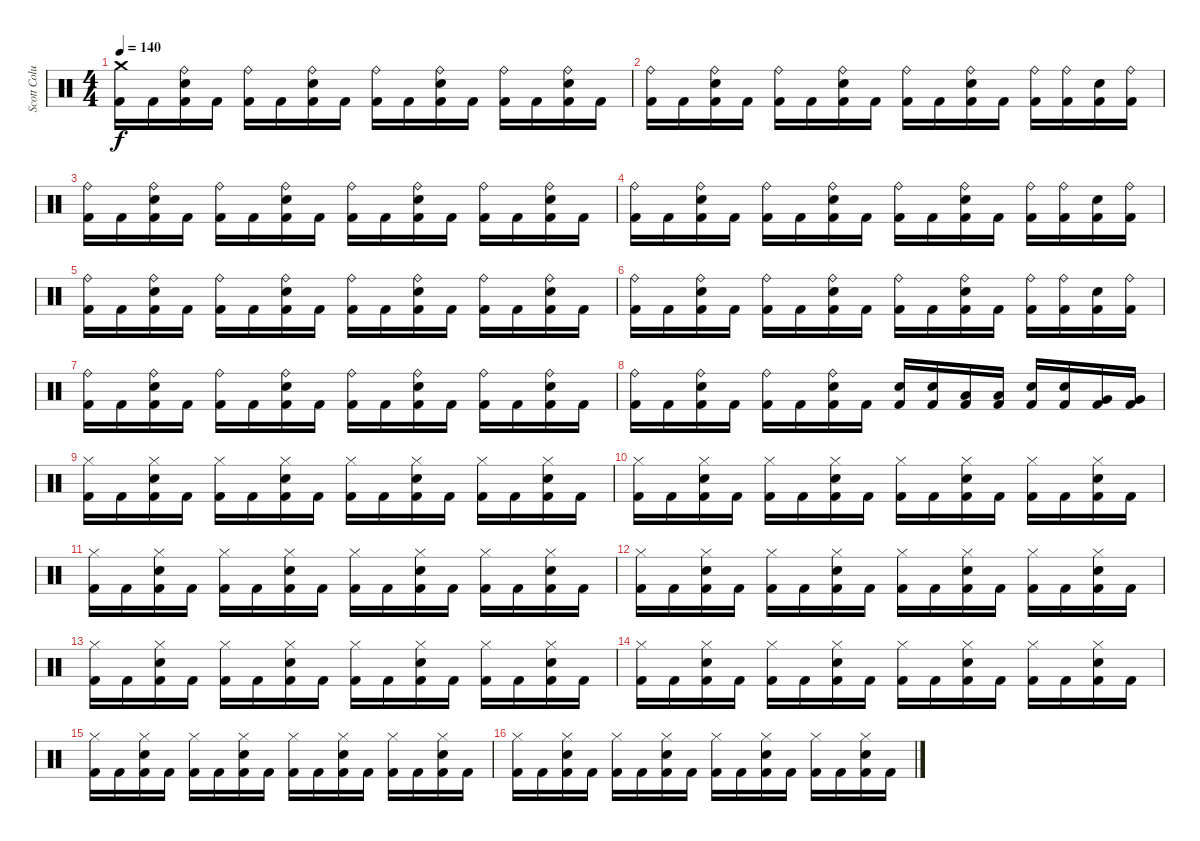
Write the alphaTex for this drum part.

\track ("Scott Columbus(Drums)" "Scott Colu") {instrument percussion}
\staff {score}
\articulation defaults
\ts (4 4)
\tempo 140
\clef neutral
\ks c
("Crash medium (hit)" "Kick (hit) 2").16{dy f} "Kick (hit) 2".16 ("Ride (bell)" "Snare (hit) 2" "Kick (hit) 2").16 "Kick (hit) 2".16 ("Ride (bell)" "Kick (hit) 2").16 "Kick (hit) 2".16 ("Ride (bell)" "Snare (hit) 2" "Kick (hit) 2").16 "Kick (hit) 2".16 ("Ride (bell)" "Kick (hit) 2").16 "Kick (hit) 2".16 ("Ride (bell)" "Snare (hit) 2" "Kick (hit) 2").16 "Kick (hit) 2".16 ("Ride (bell)" "Kick (hit) 2").16 "Kick (hit) 2".16 ("Ride (bell)" "Snare (hit) 2" "Kick (hit) 2").16 "Kick (hit) 2".16 |
("Ride (bell)" "Kick (hit) 2").16 "Kick (hit) 2".16 ("Ride (bell)" "Snare (hit) 2" "Kick (hit) 2").16 "Kick (hit) 2".16 ("Ride (bell)" "Kick (hit) 2").16 "Kick (hit) 2".16 ("Ride (bell)" "Snare (hit) 2" "Kick (hit) 2").16 "Kick (hit) 2".16 ("Ride (bell)" "Kick (hit) 2").16 "Kick (hit) 2".16 ("Ride (bell)" "Snare (hit) 2" "Kick (hit) 2").16 "Kick (hit) 2".16 ("Ride (bell)" "Kick (hit) 2").16 ("Ride (bell)" "Kick (hit) 2").16 ("Snare (hit) 2" "Kick (hit) 2").16 ("Ride (bell)" "Kick (hit) 2").16 |
("Ride (bell)" "Kick (hit) 2").16 "Kick (hit) 2".16 ("Ride (bell)" "Snare (hit) 2" "Kick (hit) 2").16 "Kick (hit) 2".16 ("Ride (bell)" "Kick (hit) 2").16 "Kick (hit) 2".16 ("Ride (bell)" "Snare (hit) 2" "Kick (hit) 2").16 "Kick (hit) 2".16 ("Ride (bell)" "Kick (hit) 2").16 "Kick (hit) 2".16 ("Ride (bell)" "Snare (hit) 2" "Kick (hit) 2").16 "Kick (hit) 2".16 ("Ride (bell)" "Kick (hit) 2").16 "Kick (hit) 2".16 ("Ride (bell)" "Snare (hit) 2" "Kick (hit) 2").16 "Kick (hit) 2".16 |
("Ride (bell)" "Kick (hit) 2").16 "Kick (hit) 2".16 ("Ride (bell)" "Snare (hit) 2" "Kick (hit) 2").16 "Kick (hit) 2".16 ("Ride (bell)" "Kick (hit) 2").16 "Kick (hit) 2".16 ("Ride (bell)" "Snare (hit) 2" "Kick (hit) 2").16 "Kick (hit) 2".16 ("Ride (bell)" "Kick (hit) 2").16 "Kick (hit) 2".16 ("Ride (bell)" "Snare (hit) 2" "Kick (hit) 2").16 "Kick (hit) 2".16 ("Ride (bell)" "Kick (hit) 2").16 ("Ride (bell)" "Kick (hit) 2").16 ("Snare (hit) 2" "Kick (hit) 2").16 ("Ride (bell)" "Kick (hit) 2").16 |
("Ride (bell)" "Kick (hit) 2").16 "Kick (hit) 2".16 ("Ride (bell)" "Snare (hit) 2" "Kick (hit) 2").16 "Kick (hit) 2".16 ("Ride (bell)" "Kick (hit) 2").16 "Kick (hit) 2".16 ("Ride (bell)" "Snare (hit) 2" "Kick (hit) 2").16 "Kick (hit) 2".16 ("Ride (bell)" "Kick (hit) 2").16 "Kick (hit) 2".16 ("Ride (bell)" "Snare (hit) 2" "Kick (hit) 2").16 "Kick (hit) 2".16 ("Ride (bell)" "Kick (hit) 2").16 "Kick (hit) 2".16 ("Ride (bell)" "Snare (hit) 2" "Kick (hit) 2").16 "Kick (hit) 2".16 |
("Ride (bell)" "Kick (hit) 2").16 "Kick (hit) 2".16 ("Ride (bell)" "Snare (hit) 2" "Kick (hit) 2").16 "Kick (hit) 2".16 ("Ride (bell)" "Kick (hit) 2").16 "Kick (hit) 2".16 ("Ride (bell)" "Snare (hit) 2" "Kick (hit) 2").16 "Kick (hit) 2".16 ("Ride (bell)" "Kick (hit) 2").16 "Kick (hit) 2".16 ("Ride (bell)" "Snare (hit) 2" "Kick (hit) 2").16 "Kick (hit) 2".16 ("Ride (bell)" "Kick (hit) 2").16 ("Ride (bell)" "Kick (hit) 2").16 ("Snare (hit) 2" "Kick (hit) 2").16 ("Ride (bell)" "Kick (hit) 2").16 |
("Ride (bell)" "Kick (hit) 2").16 "Kick (hit) 2".16 ("Ride (bell)" "Snare (hit) 2" "Kick (hit) 2").16 "Kick (hit) 2".16 ("Ride (bell)" "Kick (hit) 2").16 "Kick (hit) 2".16 ("Ride (bell)" "Snare (hit) 2" "Kick (hit) 2").16 "Kick (hit) 2".16 ("Ride (bell)" "Kick (hit) 2").16 "Kick (hit) 2".16 ("Ride (bell)" "Snare (hit) 2" "Kick (hit) 2").16 "Kick (hit) 2".16 ("Ride (bell)" "Kick (hit) 2").16 "Kick (hit) 2".16 ("Ride (bell)" "Snare (hit) 2" "Kick (hit) 2").16 "Kick (hit) 2".16 |
("Ride (bell)" "Kick (hit) 2").16 "Kick (hit) 2".16 ("Ride (bell)" "Snare (hit) 2" "Kick (hit) 2").16 "Kick (hit) 2".16 ("Ride (bell)" "Kick (hit) 2").16 "Kick (hit) 2".16 ("Ride (bell)" "Snare (hit) 2" "Kick (hit) 2").16 "Kick (hit) 2".16 ("Snare (hit) 2" "Kick (hit) 2").16 ("Snare (hit) 2" "Kick (hit) 2").16 ("Low Tom (hit)" "Kick (hit) 2").16 ("Low Tom (hit)" "Kick (hit) 2").16 ("Snare (hit) 2" "Kick (hit) 2").16 ("Snare (hit) 2" "Kick (hit) 2").16 ("Very Low Tom (hit)" "Kick (hit) 2").16 ("Very Low Tom (hit)" "Kick (hit) 2").16 |
("Hi-Hat (closed)" "Kick (hit) 2").16 "Kick (hit) 2".16 ("Hi-Hat (closed)" "Snare (hit) 2" "Kick (hit) 2").16 "Kick (hit) 2".16 ("Hi-Hat (closed)" "Kick (hit) 2").16 "Kick (hit) 2".16 ("Hi-Hat (closed)" "Snare (hit) 2" "Kick (hit) 2").16 "Kick (hit) 2".16 ("Hi-Hat (closed)" "Kick (hit) 2").16 "Kick (hit) 2".16 ("Hi-Hat (closed)" "Snare (hit) 2" "Kick (hit) 2").16 "Kick (hit) 2".16 ("Hi-Hat (closed)" "Kick (hit) 2").16 "Kick (hit) 2".16 ("Hi-Hat (closed)" "Snare (hit) 2" "Kick (hit) 2").16 "Kick (hit) 2".16 |
("Hi-Hat (closed)" "Kick (hit) 2").16 "Kick (hit) 2".16 ("Hi-Hat (closed)" "Snare (hit) 2" "Kick (hit) 2").16 "Kick (hit) 2".16 ("Hi-Hat (closed)" "Kick (hit) 2").16 "Kick (hit) 2".16 ("Hi-Hat (closed)" "Snare (hit) 2" "Kick (hit) 2").16 "Kick (hit) 2".16 ("Hi-Hat (closed)" "Kick (hit) 2").16 "Kick (hit) 2".16 ("Hi-Hat (closed)" "Snare (hit) 2" "Kick (hit) 2").16 "Kick (hit) 2".16 ("Hi-Hat (closed)" "Kick (hit) 2").16 "Kick (hit) 2".16 ("Hi-Hat (closed)" "Snare (hit) 2" "Kick (hit) 2").16 "Kick (hit) 2".16 |
("Hi-Hat (closed)" "Kick (hit) 2").16 "Kick (hit) 2".16 ("Hi-Hat (closed)" "Snare (hit) 2" "Kick (hit) 2").16 "Kick (hit) 2".16 ("Hi-Hat (closed)" "Kick (hit) 2").16 "Kick (hit) 2".16 ("Hi-Hat (closed)" "Snare (hit) 2" "Kick (hit) 2").16 "Kick (hit) 2".16 ("Hi-Hat (closed)" "Kick (hit) 2").16 "Kick (hit) 2".16 ("Hi-Hat (closed)" "Snare (hit) 2" "Kick (hit) 2").16 "Kick (hit) 2".16 ("Hi-Hat (closed)" "Kick (hit) 2").16 "Kick (hit) 2".16 ("Hi-Hat (closed)" "Snare (hit) 2" "Kick (hit) 2").16 "Kick (hit) 2".16 |
("Hi-Hat (closed)" "Kick (hit) 2").16 "Kick (hit) 2".16 ("Hi-Hat (closed)" "Snare (hit) 2" "Kick (hit) 2").16 "Kick (hit) 2".16 ("Hi-Hat (closed)" "Kick (hit) 2").16 "Kick (hit) 2".16 ("Hi-Hat (closed)" "Snare (hit) 2" "Kick (hit) 2").16 "Kick (hit) 2".16 ("Hi-Hat (closed)" "Kick (hit) 2").16 "Kick (hit) 2".16 ("Hi-Hat (closed)" "Snare (hit) 2" "Kick (hit) 2").16 "Kick (hit) 2".16 ("Hi-Hat (closed)" "Kick (hit) 2").16 "Kick (hit) 2".16 ("Hi-Hat (closed)" "Snare (hit) 2" "Kick (hit) 2").16 "Kick (hit) 2".16 |
("Hi-Hat (closed)" "Kick (hit) 2").16 "Kick (hit) 2".16 ("Hi-Hat (closed)" "Snare (hit) 2" "Kick (hit) 2").16 "Kick (hit) 2".16 ("Hi-Hat (closed)" "Kick (hit) 2").16 "Kick (hit) 2".16 ("Hi-Hat (closed)" "Snare (hit) 2" "Kick (hit) 2").16 "Kick (hit) 2".16 ("Hi-Hat (closed)" "Kick (hit) 2").16 "Kick (hit) 2".16 ("Hi-Hat (closed)" "Snare (hit) 2" "Kick (hit) 2").16 "Kick (hit) 2".16 ("Hi-Hat (closed)" "Kick (hit) 2").16 "Kick (hit) 2".16 ("Hi-Hat (closed)" "Snare (hit) 2" "Kick (hit) 2").16 "Kick (hit) 2".16 |
("Hi-Hat (closed)" "Kick (hit) 2").16 "Kick (hit) 2".16 ("Hi-Hat (closed)" "Snare (hit) 2" "Kick (hit) 2").16 "Kick (hit) 2".16 ("Hi-Hat (closed)" "Kick (hit) 2").16 "Kick (hit) 2".16 ("Hi-Hat (closed)" "Snare (hit) 2" "Kick (hit) 2").16 "Kick (hit) 2".16 ("Hi-Hat (closed)" "Kick (hit) 2").16 "Kick (hit) 2".16 ("Hi-Hat (closed)" "Snare (hit) 2" "Kick (hit) 2").16 "Kick (hit) 2".16 ("Hi-Hat (closed)" "Kick (hit) 2").16 "Kick (hit) 2".16 ("Hi-Hat (closed)" "Snare (hit) 2" "Kick (hit) 2").16 "Kick (hit) 2".16 |
("Hi-Hat (closed)" "Kick (hit) 2").16 "Kick (hit) 2".16 ("Hi-Hat (closed)" "Snare (hit) 2" "Kick (hit) 2").16 "Kick (hit) 2".16 ("Hi-Hat (closed)" "Kick (hit) 2").16 "Kick (hit) 2".16 ("Hi-Hat (closed)" "Snare (hit) 2" "Kick (hit) 2").16 "Kick (hit) 2".16 ("Hi-Hat (closed)" "Kick (hit) 2").16 "Kick (hit) 2".16 ("Hi-Hat (closed)" "Snare (hit) 2" "Kick (hit) 2").16 "Kick (hit) 2".16 ("Hi-Hat (closed)" "Kick (hit) 2").16 "Kick (hit) 2".16 ("Hi-Hat (closed)" "Snare (hit) 2" "Kick (hit) 2").16 "Kick (hit) 2".16 |
("Hi-Hat (closed)" "Kick (hit) 2").16 "Kick (hit) 2".16 ("Hi-Hat (closed)" "Snare (hit) 2" "Kick (hit) 2").16 "Kick (hit) 2".16 ("Hi-Hat (closed)" "Kick (hit) 2").16 "Kick (hit) 2".16 ("Hi-Hat (closed)" "Snare (hit) 2" "Kick (hit) 2").16 "Kick (hit) 2".16 ("Hi-Hat (closed)" "Kick (hit) 2").16 "Kick (hit) 2".16 ("Hi-Hat (closed)" "Snare (hit) 2" "Kick (hit) 2").16 "Kick (hit) 2".16 ("Hi-Hat (closed)" "Kick (hit) 2").16 "Kick (hit) 2".16 ("Hi-Hat (closed)" "Snare (hit) 2" "Kick (hit) 2").16 "Kick (hit) 2".16
